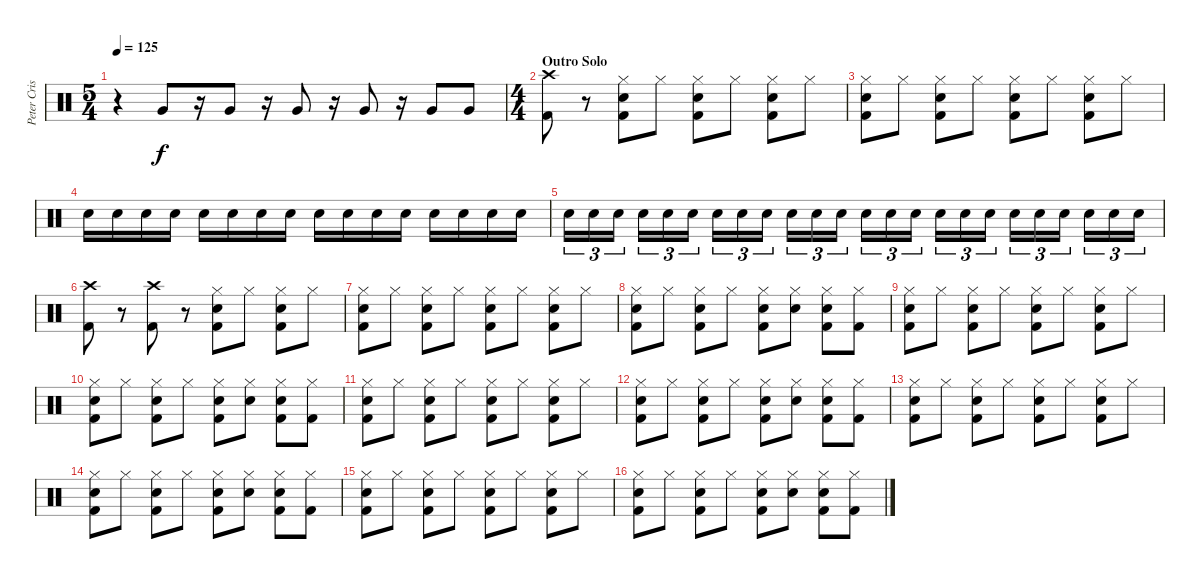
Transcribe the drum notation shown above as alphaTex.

\track ("Peter Criss" "Peter Cris") {instrument percussion}
\staff {score}
\articulation defaults
\ts (5 4)
\tempo 125
\clef neutral
\ks c
r.4{dy f} "Very Low Tom (hit)".8 r.16 "Very Low Tom (hit)".8 r.16 "Very Low Tom (hit)".8 r.16 "Very Low Tom (hit)".8 r.16 "Very Low Tom (hit)".8 "Very Low Tom (hit)".8 |
\ts (4 4)
\section ("" "Outro Solo")
("Crash high (hit)" "Kick (hit) 2").8 r.8 ("Hi-Hat (closed)" "Electric Snare (hit)" "Kick (hit) 2").8 "Hi-Hat (closed)".8 ("Hi-Hat (closed)" "Electric Snare (hit)" "Kick (hit) 2").8 "Hi-Hat (closed)".8 ("Hi-Hat (closed)" "Electric Snare (hit)" "Kick (hit) 2").8 "Hi-Hat (closed)".8 |
("Hi-Hat (closed)" "Electric Snare (hit)" "Kick (hit) 2").8 "Hi-Hat (closed)".8 ("Hi-Hat (closed)" "Electric Snare (hit)" "Kick (hit) 2").8 "Hi-Hat (closed)".8 ("Hi-Hat (closed)" "Electric Snare (hit)" "Kick (hit) 2").8 "Hi-Hat (closed)".8 ("Hi-Hat (closed)" "Electric Snare (hit)" "Kick (hit) 2").8 "Hi-Hat (closed)".8 |
"Electric Snare (hit)".16 "Electric Snare (hit)".16 "Electric Snare (hit)".16 "Electric Snare (hit)".16 "Electric Snare (hit)".16 "Electric Snare (hit)".16 "Electric Snare (hit)".16 "Electric Snare (hit)".16 "Electric Snare (hit)".16 "Electric Snare (hit)".16 "Electric Snare (hit)".16 "Electric Snare (hit)".16 "Electric Snare (hit)".16 "Electric Snare (hit)".16 "Electric Snare (hit)".16 "Electric Snare (hit)".16 |
"Electric Snare (hit)".16{tu (3 2)} "Electric Snare (hit)".16{tu (3 2)} "Electric Snare (hit)".16{tu (3 2)} "Electric Snare (hit)".16{tu (3 2)} "Electric Snare (hit)".16{tu (3 2)} "Electric Snare (hit)".16{tu (3 2)} "Electric Snare (hit)".16{tu (3 2)} "Electric Snare (hit)".16{tu (3 2)} "Electric Snare (hit)".16{tu (3 2)} "Electric Snare (hit)".16{tu (3 2)} "Electric Snare (hit)".16{tu (3 2)} "Electric Snare (hit)".16{tu (3 2)} "Electric Snare (hit)".16{tu (3 2)} "Electric Snare (hit)".16{tu (3 2)} "Electric Snare (hit)".16{tu (3 2)} "Electric Snare (hit)".16{tu (3 2)} "Electric Snare (hit)".16{tu (3 2)} "Electric Snare (hit)".16{tu (3 2)} "Electric Snare (hit)".16{tu (3 2)} "Electric Snare (hit)".16{tu (3 2)} "Electric Snare (hit)".16{tu (3 2)} "Electric Snare (hit)".16{tu (3 2)} "Electric Snare (hit)".16{tu (3 2)} "Electric Snare (hit)".16{tu (3 2)} |
("Crash high (hit)" "Kick (hit) 2").8 r.8 ("Crash high (hit)" "Kick (hit) 2").8 r.8 ("Hi-Hat (closed)" "Electric Snare (hit)" "Kick (hit) 2").8 "Hi-Hat (closed)".8 ("Hi-Hat (closed)" "Electric Snare (hit)" "Kick (hit) 2").8 "Hi-Hat (closed)".8 |
("Hi-Hat (closed)" "Electric Snare (hit)" "Kick (hit) 2").8 "Hi-Hat (closed)".8 ("Hi-Hat (closed)" "Electric Snare (hit)" "Kick (hit) 2").8 "Hi-Hat (closed)".8 ("Hi-Hat (closed)" "Electric Snare (hit)" "Kick (hit) 2").8 "Hi-Hat (closed)".8 ("Hi-Hat (closed)" "Electric Snare (hit)" "Kick (hit) 2").8 "Hi-Hat (closed)".8 |
("Hi-Hat (closed)" "Electric Snare (hit)" "Kick (hit) 2").8 "Hi-Hat (closed)".8 ("Hi-Hat (closed)" "Electric Snare (hit)" "Kick (hit) 2").8 "Hi-Hat (closed)".8 ("Hi-Hat (closed)" "Electric Snare (hit)" "Kick (hit) 2").8 ("Hi-Hat (closed)" "Electric Snare (hit)").8 ("Hi-Hat (closed)" "Electric Snare (hit)" "Kick (hit) 2").8 ("Hi-Hat (closed)" "Kick (hit) 2").8 |
("Hi-Hat (closed)" "Electric Snare (hit)" "Kick (hit) 2").8 "Hi-Hat (closed)".8 ("Hi-Hat (closed)" "Electric Snare (hit)" "Kick (hit) 2").8 "Hi-Hat (closed)".8 ("Hi-Hat (closed)" "Electric Snare (hit)" "Kick (hit) 2").8 "Hi-Hat (closed)".8 ("Hi-Hat (closed)" "Electric Snare (hit)" "Kick (hit) 2").8 "Hi-Hat (closed)".8 |
("Hi-Hat (closed)" "Electric Snare (hit)" "Kick (hit) 2").8 "Hi-Hat (closed)".8 ("Hi-Hat (closed)" "Electric Snare (hit)" "Kick (hit) 2").8 "Hi-Hat (closed)".8 ("Hi-Hat (closed)" "Electric Snare (hit)" "Kick (hit) 2").8 ("Hi-Hat (closed)" "Electric Snare (hit)").8 ("Hi-Hat (closed)" "Electric Snare (hit)" "Kick (hit) 2").8 ("Hi-Hat (closed)" "Kick (hit) 2").8 |
("Hi-Hat (closed)" "Electric Snare (hit)" "Kick (hit) 2").8 "Hi-Hat (closed)".8 ("Hi-Hat (closed)" "Electric Snare (hit)" "Kick (hit) 2").8 "Hi-Hat (closed)".8 ("Hi-Hat (closed)" "Electric Snare (hit)" "Kick (hit) 2").8 "Hi-Hat (closed)".8 ("Hi-Hat (closed)" "Electric Snare (hit)" "Kick (hit) 2").8 "Hi-Hat (closed)".8 |
("Hi-Hat (closed)" "Electric Snare (hit)" "Kick (hit) 2").8 "Hi-Hat (closed)".8 ("Hi-Hat (closed)" "Electric Snare (hit)" "Kick (hit) 2").8 "Hi-Hat (closed)".8 ("Hi-Hat (closed)" "Electric Snare (hit)" "Kick (hit) 2").8 ("Hi-Hat (closed)" "Electric Snare (hit)").8 ("Hi-Hat (closed)" "Electric Snare (hit)" "Kick (hit) 2").8 ("Hi-Hat (closed)" "Kick (hit) 2").8 |
("Hi-Hat (closed)" "Electric Snare (hit)" "Kick (hit) 2").8 "Hi-Hat (closed)".8 ("Hi-Hat (closed)" "Electric Snare (hit)" "Kick (hit) 2").8 "Hi-Hat (closed)".8 ("Hi-Hat (closed)" "Electric Snare (hit)" "Kick (hit) 2").8 "Hi-Hat (closed)".8 ("Hi-Hat (closed)" "Electric Snare (hit)" "Kick (hit) 2").8 "Hi-Hat (closed)".8 |
("Hi-Hat (closed)" "Electric Snare (hit)" "Kick (hit) 2").8 "Hi-Hat (closed)".8 ("Hi-Hat (closed)" "Electric Snare (hit)" "Kick (hit) 2").8 "Hi-Hat (closed)".8 ("Hi-Hat (closed)" "Electric Snare (hit)" "Kick (hit) 2").8 ("Hi-Hat (closed)" "Electric Snare (hit)").8 ("Hi-Hat (closed)" "Electric Snare (hit)" "Kick (hit) 2").8 ("Hi-Hat (closed)" "Kick (hit) 2").8 |
("Hi-Hat (closed)" "Electric Snare (hit)" "Kick (hit) 2").8 "Hi-Hat (closed)".8 ("Hi-Hat (closed)" "Electric Snare (hit)" "Kick (hit) 2").8 "Hi-Hat (closed)".8 ("Hi-Hat (closed)" "Electric Snare (hit)" "Kick (hit) 2").8 "Hi-Hat (closed)".8 ("Hi-Hat (closed)" "Electric Snare (hit)" "Kick (hit) 2").8 "Hi-Hat (closed)".8 |
("Hi-Hat (closed)" "Electric Snare (hit)" "Kick (hit) 2").8 "Hi-Hat (closed)".8 ("Hi-Hat (closed)" "Electric Snare (hit)" "Kick (hit) 2").8 "Hi-Hat (closed)".8 ("Hi-Hat (closed)" "Electric Snare (hit)" "Kick (hit) 2").8 ("Hi-Hat (closed)" "Electric Snare (hit)").8 ("Hi-Hat (closed)" "Electric Snare (hit)" "Kick (hit) 2").8 ("Hi-Hat (closed)" "Kick (hit) 2").8
